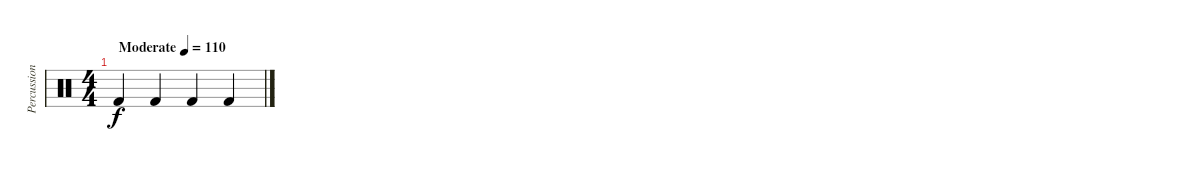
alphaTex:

\track ("Percussion" "Percussion") {instrument percussion}
\staff {score}
\articulation defaults
\ts (4 4)
\tempo (110 "Moderate")
\clef neutral
\ks c "Kick (hit) 2".4{dy f} "Kick (hit) 2".4 "Kick (hit) 2".4 "Kick (hit) 2".4
